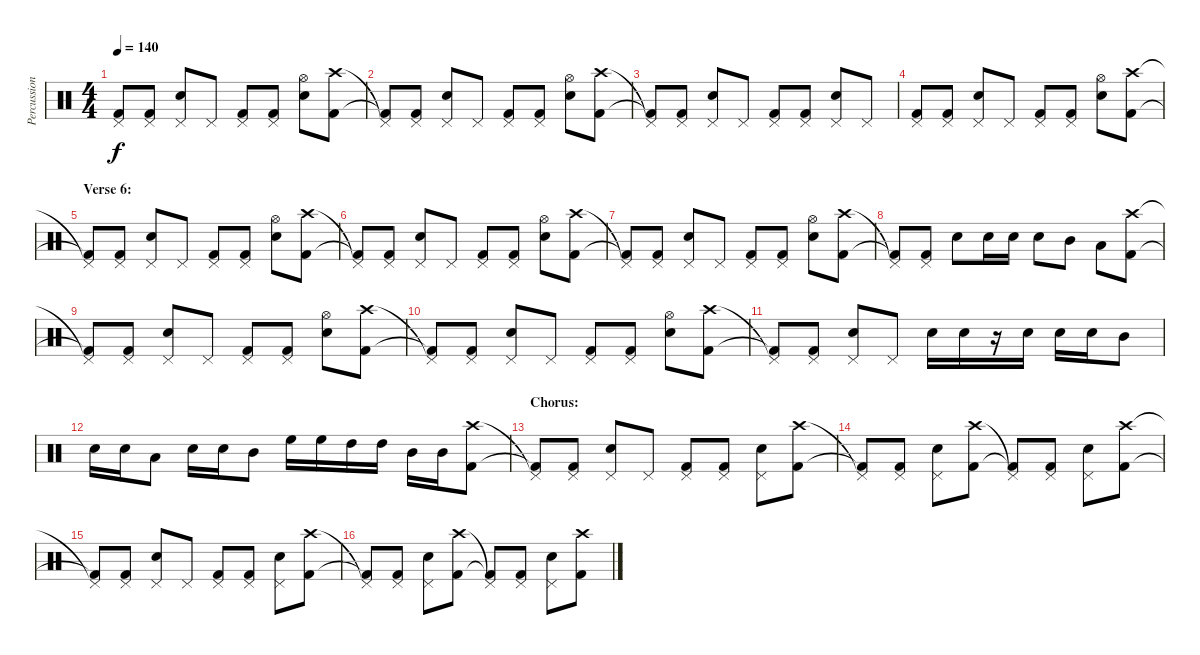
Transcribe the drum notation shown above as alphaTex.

\track ("Percussion" "Percussion") {instrument percussion}
\staff {score}
\articulation defaults
\ts (4 4)
\tempo 140
\clef neutral
\ks c
("Pedal Hi-Hat (hit)"{t} "Kick (hit) 2"{t}).8{dy f} ("Pedal Hi-Hat (hit)" "Kick (hit) 2").8 ("Pedal Hi-Hat (hit)" "Snare (hit) 2").8 "Pedal Hi-Hat (hit)".8 ("Pedal Hi-Hat (hit)" "Kick (hit) 2").8 ("Pedal Hi-Hat (hit)" "Kick (hit) 2").8 ("Hi-Hat (open)" "Snare (hit) 2").8 ("Crash high (hit)" "Kick (hit) 2").8 |
("Pedal Hi-Hat (hit)"{t} "Kick (hit) 2"{t}).8 ("Pedal Hi-Hat (hit)" "Kick (hit) 2").8 ("Pedal Hi-Hat (hit)" "Snare (hit) 2").8 "Pedal Hi-Hat (hit)".8 ("Pedal Hi-Hat (hit)" "Kick (hit) 2").8 ("Pedal Hi-Hat (hit)" "Kick (hit) 2").8 ("Hi-Hat (open)" "Snare (hit) 2").8 ("Crash high (hit)" "Kick (hit) 2").8 |
("Pedal Hi-Hat (hit)"{t} "Kick (hit) 2"{t}).8 ("Pedal Hi-Hat (hit)" "Kick (hit) 2").8 ("Pedal Hi-Hat (hit)" "Snare (hit) 2").8 "Pedal Hi-Hat (hit)".8 ("Pedal Hi-Hat (hit)" "Kick (hit) 2").8 ("Pedal Hi-Hat (hit)" "Kick (hit) 2").8 ("Pedal Hi-Hat (hit)" "Snare (hit) 2").8 "Pedal Hi-Hat (hit)".8 |
("Pedal Hi-Hat (hit)" "Kick (hit) 2").8 ("Pedal Hi-Hat (hit)" "Kick (hit) 2").8 ("Pedal Hi-Hat (hit)" "Snare (hit) 2").8 "Pedal Hi-Hat (hit)".8 ("Pedal Hi-Hat (hit)" "Kick (hit) 2").8 ("Pedal Hi-Hat (hit)" "Kick (hit) 2").8 ("Hi-Hat (open)" "Snare (hit) 2").8 ("Crash high (hit)" "Kick (hit) 2").8 |
\section ("" "Verse 6:")
("Pedal Hi-Hat (hit)"{t} "Kick (hit) 2"{t}).8 ("Pedal Hi-Hat (hit)" "Kick (hit) 2").8 ("Pedal Hi-Hat (hit)" "Snare (hit) 2").8 "Pedal Hi-Hat (hit)".8 ("Pedal Hi-Hat (hit)" "Kick (hit) 2").8 ("Pedal Hi-Hat (hit)" "Kick (hit) 2").8 ("Hi-Hat (open)" "Snare (hit) 2").8 ("Crash high (hit)" "Kick (hit) 2").8 |
("Pedal Hi-Hat (hit)"{t} "Kick (hit) 2"{t}).8 ("Pedal Hi-Hat (hit)" "Kick (hit) 2").8 ("Pedal Hi-Hat (hit)" "Snare (hit) 2").8 "Pedal Hi-Hat (hit)".8 ("Pedal Hi-Hat (hit)" "Kick (hit) 2").8 ("Pedal Hi-Hat (hit)" "Kick (hit) 2").8 ("Hi-Hat (open)" "Snare (hit) 2").8 ("Crash high (hit)" "Kick (hit) 2").8 |
("Pedal Hi-Hat (hit)"{t} "Kick (hit) 2"{t}).8 ("Pedal Hi-Hat (hit)" "Kick (hit) 2").8 ("Pedal Hi-Hat (hit)" "Snare (hit) 2").8 "Pedal Hi-Hat (hit)".8 ("Pedal Hi-Hat (hit)" "Kick (hit) 2").8 ("Pedal Hi-Hat (hit)" "Kick (hit) 2").8 ("Hi-Hat (open)" "Snare (hit) 2").8 ("Crash high (hit)" "Kick (hit) 2").8 |
("Pedal Hi-Hat (hit)"{t} "Kick (hit) 2"{t}).8 ("Pedal Hi-Hat (hit)" "Kick (hit) 2").8 "Snare (hit) 2".8 "Snare (hit) 2".16 "Snare (hit) 2".16 "Snare (hit) 2".8 "Mid Tom (hit)".8 "Low Tom (hit)".8 ("Crash high (hit)" "Kick (hit) 2").8 |
("Pedal Hi-Hat (hit)"{t} "Kick (hit) 2"{t}).8 ("Pedal Hi-Hat (hit)" "Kick (hit) 2").8 ("Pedal Hi-Hat (hit)" "Snare (hit) 2").8 "Pedal Hi-Hat (hit)".8 ("Pedal Hi-Hat (hit)" "Kick (hit) 2").8 ("Pedal Hi-Hat (hit)" "Kick (hit) 2").8 ("Hi-Hat (open)" "Snare (hit) 2").8 ("Crash high (hit)" "Kick (hit) 2").8 |
("Pedal Hi-Hat (hit)"{t} "Kick (hit) 2"{t}).8 ("Pedal Hi-Hat (hit)" "Kick (hit) 2").8 ("Pedal Hi-Hat (hit)" "Snare (hit) 2").8 "Pedal Hi-Hat (hit)".8 ("Pedal Hi-Hat (hit)" "Kick (hit) 2").8 ("Pedal Hi-Hat (hit)" "Kick (hit) 2").8 ("Hi-Hat (open)" "Snare (hit) 2").8 ("Crash high (hit)" "Kick (hit) 2").8 |
("Pedal Hi-Hat (hit)"{t} "Kick (hit) 2"{t}).8 ("Pedal Hi-Hat (hit)" "Kick (hit) 2").8 ("Pedal Hi-Hat (hit)" "Snare (hit) 2").8 "Pedal Hi-Hat (hit)".8 "Snare (hit) 2".16 "Snare (hit) 2".16 r.16 "Snare (hit) 2".16 "Snare (hit) 2".16 "Snare (hit) 2".16 "Mid Tom (hit)".8 |
"Snare (hit) 2".16 "Snare (hit) 2".16 "Low Tom (hit)".8 "Snare (hit) 2".16 "Snare (hit) 2".16 "Mid Tom (hit)".8 "High Floor Tom (hit)".16 "High Floor Tom (hit)".16 "High Tom (hit)".16 "High Tom (hit)".16 "Mid Tom (hit)".16 "Mid Tom (hit)".16 ("Crash high (hit)" "Kick (hit) 2").8 |
\section ("" "Chorus:")
("Pedal Hi-Hat (hit)"{t} "Kick (hit) 2"{t}).8 ("Pedal Hi-Hat (hit)" "Kick (hit) 2").8 ("Pedal Hi-Hat (hit)" "Snare (hit) 2").8 "Pedal Hi-Hat (hit)".8 ("Pedal Hi-Hat (hit)" "Kick (hit) 2").8 ("Pedal Hi-Hat (hit)" "Kick (hit) 2").8 ("Pedal Hi-Hat (hit)" "Snare (hit) 2").8 ("Crash high (hit)" "Kick (hit) 2").8 |
("Pedal Hi-Hat (hit)"{t} "Kick (hit) 2"{t}).8 ("Pedal Hi-Hat (hit)" "Kick (hit) 2").8 ("Pedal Hi-Hat (hit)" "Snare (hit) 2").8 ("Crash high (hit)" "Kick (hit) 2").8 ("Pedal Hi-Hat (hit)"{t} "Kick (hit) 2"{t}).8 ("Pedal Hi-Hat (hit)" "Kick (hit) 2").8 ("Pedal Hi-Hat (hit)" "Snare (hit) 2").8 ("Crash high (hit)" "Kick (hit) 2").8 |
("Pedal Hi-Hat (hit)"{t} "Kick (hit) 2"{t}).8 ("Pedal Hi-Hat (hit)" "Kick (hit) 2").8 ("Pedal Hi-Hat (hit)" "Snare (hit) 2").8 "Pedal Hi-Hat (hit)".8 ("Pedal Hi-Hat (hit)" "Kick (hit) 2").8 ("Pedal Hi-Hat (hit)" "Kick (hit) 2").8 ("Pedal Hi-Hat (hit)" "Snare (hit) 2").8 ("Crash high (hit)" "Kick (hit) 2").8 |
("Pedal Hi-Hat (hit)"{t} "Kick (hit) 2"{t}).8 ("Pedal Hi-Hat (hit)" "Kick (hit) 2").8 ("Pedal Hi-Hat (hit)" "Snare (hit) 2").8 ("Crash high (hit)" "Kick (hit) 2").8 ("Pedal Hi-Hat (hit)"{t} "Kick (hit) 2"{t}).8 ("Pedal Hi-Hat (hit)" "Kick (hit) 2").8 ("Pedal Hi-Hat (hit)" "Snare (hit) 2").8 ("Crash high (hit)" "Kick (hit) 2").8
